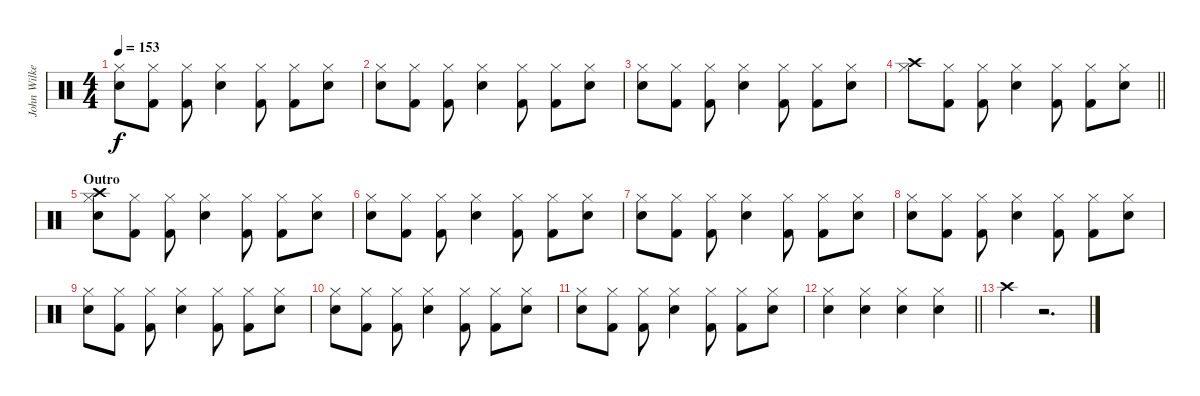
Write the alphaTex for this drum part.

\track ("John Wilkes (Percussion)" "John Wilke") {instrument percussion}
\staff {score}
\articulation defaults
\ts (4 4)
\tempo 153
\clef neutral
\ks c
("Snare (hit) 2" "Hi-Hat (closed)").8{dy f} ("Kick (hit) 2" "Hi-Hat (closed)").8 ("Kick (hit) 2" "Hi-Hat (closed)").8 ("Snare (hit) 2" "Hi-Hat (closed)").4 ("Kick (hit) 2" "Hi-Hat (closed)").8 ("Kick (hit) 2" "Hi-Hat (closed)").8 ("Snare (hit) 2" "Hi-Hat (closed)").8 |
("Snare (hit) 2" "Hi-Hat (closed)").8 ("Kick (hit) 2" "Hi-Hat (closed)").8 ("Kick (hit) 2" "Hi-Hat (closed)").8 ("Snare (hit) 2" "Hi-Hat (closed)").4 ("Kick (hit) 2" "Hi-Hat (closed)").8 ("Kick (hit) 2" "Hi-Hat (closed)").8 ("Snare (hit) 2" "Hi-Hat (closed)").8 |
("Snare (hit) 2" "Hi-Hat (closed)").8 ("Kick (hit) 2" "Hi-Hat (closed)").8 ("Kick (hit) 2" "Hi-Hat (closed)").8 ("Snare (hit) 2" "Hi-Hat (closed)").4 ("Kick (hit) 2" "Hi-Hat (closed)").8 ("Kick (hit) 2" "Hi-Hat (closed)").8 ("Snare (hit) 2" "Hi-Hat (closed)").8 |
\barLineRight lightlight
("Crash high (hit)" "Hi-Hat (closed)").8 ("Kick (hit) 2" "Hi-Hat (closed)").8 ("Kick (hit) 2" "Hi-Hat (closed)").8 ("Snare (hit) 2" "Hi-Hat (closed)").4 ("Kick (hit) 2" "Hi-Hat (closed)").8 ("Kick (hit) 2" "Hi-Hat (closed)").8 ("Snare (hit) 2" "Hi-Hat (closed)").8 |
\section ("" "Outro")
("Snare (hit) 2" "Hi-Hat (closed)" "Crash high (hit)").8 ("Kick (hit) 2" "Hi-Hat (closed)").8 ("Kick (hit) 2" "Hi-Hat (closed)").8 ("Snare (hit) 2" "Hi-Hat (closed)").4 ("Kick (hit) 2" "Hi-Hat (closed)").8 ("Kick (hit) 2" "Hi-Hat (closed)").8 ("Snare (hit) 2" "Hi-Hat (closed)").8 |
("Snare (hit) 2" "Hi-Hat (closed)").8 ("Kick (hit) 2" "Hi-Hat (closed)").8 ("Kick (hit) 2" "Hi-Hat (closed)").8 ("Snare (hit) 2" "Hi-Hat (closed)").4 ("Kick (hit) 2" "Hi-Hat (closed)").8 ("Kick (hit) 2" "Hi-Hat (closed)").8 ("Snare (hit) 2" "Hi-Hat (closed)").8 |
("Snare (hit) 2" "Hi-Hat (closed)").8 ("Kick (hit) 2" "Hi-Hat (closed)").8 ("Kick (hit) 2" "Hi-Hat (closed)").8 ("Snare (hit) 2" "Hi-Hat (closed)").4 ("Kick (hit) 2" "Hi-Hat (closed)").8 ("Kick (hit) 2" "Hi-Hat (closed)").8 ("Snare (hit) 2" "Hi-Hat (closed)").8 |
("Snare (hit) 2" "Hi-Hat (closed)").8 ("Kick (hit) 2" "Hi-Hat (closed)").8 ("Kick (hit) 2" "Hi-Hat (closed)").8 ("Snare (hit) 2" "Hi-Hat (closed)").4 ("Kick (hit) 2" "Hi-Hat (closed)").8 ("Kick (hit) 2" "Hi-Hat (closed)").8 ("Snare (hit) 2" "Hi-Hat (closed)").8 |
("Snare (hit) 2" "Hi-Hat (closed)").8 ("Kick (hit) 2" "Hi-Hat (closed)").8 ("Kick (hit) 2" "Hi-Hat (closed)").8 ("Snare (hit) 2" "Hi-Hat (closed)").4 ("Kick (hit) 2" "Hi-Hat (closed)").8 ("Kick (hit) 2" "Hi-Hat (closed)").8 ("Snare (hit) 2" "Hi-Hat (closed)").8 |
("Snare (hit) 2" "Hi-Hat (closed)").8 ("Kick (hit) 2" "Hi-Hat (closed)").8 ("Kick (hit) 2" "Hi-Hat (closed)").8 ("Snare (hit) 2" "Hi-Hat (closed)").4 ("Kick (hit) 2" "Hi-Hat (closed)").8 ("Kick (hit) 2" "Hi-Hat (closed)").8 ("Snare (hit) 2" "Hi-Hat (closed)").8 |
("Snare (hit) 2" "Hi-Hat (closed)").8 ("Kick (hit) 2" "Hi-Hat (closed)").8 ("Kick (hit) 2" "Hi-Hat (closed)").8 ("Snare (hit) 2" "Hi-Hat (closed)").4 ("Kick (hit) 2" "Hi-Hat (closed)").8 ("Kick (hit) 2" "Hi-Hat (closed)").8 ("Snare (hit) 2" "Hi-Hat (closed)").8 |
\barLineRight lightlight
("Snare (hit) 2" "Hi-Hat (closed)").4 ("Snare (hit) 2" "Hi-Hat (closed)").4 ("Snare (hit) 2" "Hi-Hat (closed)").4 ("Snare (hit) 2" "Hi-Hat (closed)").4 |
"Crash high (hit)".4 r.2{d}
